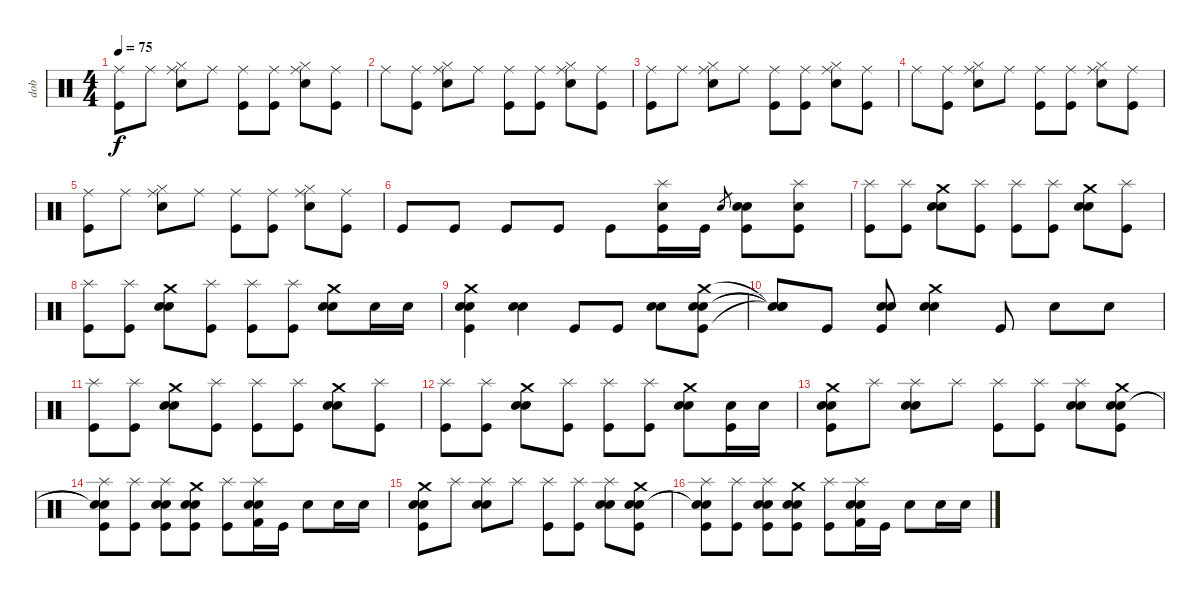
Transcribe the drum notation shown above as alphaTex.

\track ("dob" "dob") {instrument percussion}
\staff {score}
\articulation defaults
\ts (4 4)
\tempo 75
\clef neutral
\ks c
("Ride (middle)" "Kick (hit)").8{dy f} "Ride (middle)".8 ("Ride (middle)" "Hi-Hat (closed)" "Electric Snare (hit)").8 "Ride (middle)".8 ("Ride (middle)" "Kick (hit)").8 ("Ride (middle)" "Kick (hit)").8 ("Ride (middle)" "Hi-Hat (closed)" "Electric Snare (hit)").8 ("Ride (middle)" "Kick (hit)").8 |
"Ride (middle)".8 ("Ride (middle)" "Kick (hit)").8 ("Ride (middle)" "Hi-Hat (closed)" "Electric Snare (hit)").8 "Ride (middle)".8 ("Ride (middle)" "Kick (hit)").8 ("Ride (middle)" "Kick (hit)").8 ("Ride (middle)" "Hi-Hat (closed)" "Electric Snare (hit)").8 ("Ride (middle)" "Kick (hit)").8 |
("Ride (middle)" "Kick (hit)").8 "Ride (middle)".8 ("Ride (middle)" "Hi-Hat (closed)" "Electric Snare (hit)").8 "Ride (middle)".8 ("Ride (middle)" "Kick (hit)").8 ("Ride (middle)" "Kick (hit)").8 ("Ride (middle)" "Hi-Hat (closed)" "Electric Snare (hit)").8 ("Ride (middle)" "Kick (hit)").8 |
"Ride (middle)".8 ("Ride (middle)" "Kick (hit)").8 ("Ride (middle)" "Hi-Hat (closed)" "Electric Snare (hit)").8 "Ride (middle)".8 ("Ride (middle)" "Kick (hit)").8 ("Ride (middle)" "Kick (hit)").8 ("Ride (middle)" "Hi-Hat (closed)" "Electric Snare (hit)").8 ("Ride (middle)" "Kick (hit)").8 |
("Ride (middle)" "Kick (hit)").8 "Ride (middle)".8 ("Ride (middle)" "Hi-Hat (closed)" "Electric Snare (hit)").8 "Ride (middle)".8 ("Ride (middle)" "Kick (hit)").8 ("Ride (middle)" "Kick (hit)").8 ("Ride (middle)" "Hi-Hat (closed)" "Electric Snare (hit)").8 ("Ride (middle)" "Kick (hit)").8 |
"Kick (hit)".8 "Kick (hit)".8 "Kick (hit)".8 "Kick (hit)".8 "Kick (hit)".8 ("Splash (hit)" "Electric Snare (hit)" "Kick (hit)").16 "Kick (hit)".16 "Snare (hit) 2".8{gr} ("Snare (hit) 2" "Electric Snare (hit)" "Kick (hit)").8 ("Splash (hit)" "Electric Snare (hit)" "Kick (hit)").8 |
("Splash (hit)" "Kick (hit)").8 ("Splash (hit)" "Kick (hit)").8 ("Crash medium (hit)" "Snare (hit) 2" "Electric Snare (hit)").8 ("Splash (hit)" "Kick (hit)").8 ("Splash (hit)" "Kick (hit)").8 ("Splash (hit)" "Kick (hit)").8 ("Crash medium (hit)" "Snare (hit) 2" "Electric Snare (hit)").8 ("Splash (hit)" "Kick (hit)").8 |
("Splash (hit)" "Kick (hit)").8 ("Splash (hit)" "Kick (hit)").8 ("Crash medium (hit)" "Snare (hit) 2" "Electric Snare (hit)").8 ("Splash (hit)" "Kick (hit)").8 ("Splash (hit)" "Kick (hit)").8 ("Splash (hit)" "Kick (hit)").8 ("Crash medium (hit)" "Snare (hit) 2" "Electric Snare (hit)").8 "Snare (hit) 2".16 "Snare (hit) 2".16 |
("Crash medium (hit)" "Snare (hit) 2" "Electric Snare (hit)" "Kick (hit)").4 ("Snare (hit) 2" "Electric Snare (hit)").4 "Kick (hit)".8 "Kick (hit)".8 ("Snare (hit) 2" "Electric Snare (hit)").8 ("Crash medium (hit)" "Snare (hit) 2" "Electric Snare (hit)" "Kick (hit)").8 |
("Snare (hit)"{t} "Snare (hit)"{t} "Snare (hit)"{t} "Snare (hit)"{t}).8 "Kick (hit)".8 ("Snare (hit) 2" "Electric Snare (hit)" "Kick (hit)").8 ("Crash medium (hit)" "Snare (hit) 2" "Electric Snare (hit)").4 "Kick (hit)".8 "Snare (hit) 2".8 "Snare (hit) 2".8 |
("Splash (hit)" "Kick (hit)").8 ("Splash (hit)" "Kick (hit)").8 ("Crash medium (hit)" "Snare (hit) 2" "Electric Snare (hit)").8 ("Splash (hit)" "Kick (hit)").8 ("Splash (hit)" "Kick (hit)").8 ("Splash (hit)" "Kick (hit)").8 ("Crash medium (hit)" "Snare (hit) 2" "Electric Snare (hit)").8 ("Splash (hit)" "Kick (hit)").8 |
("Splash (hit)" "Kick (hit)").8 ("Splash (hit)" "Kick (hit)").8 ("Crash medium (hit)" "Snare (hit) 2" "Electric Snare (hit)").8 ("Splash (hit)" "Kick (hit)").8 ("Splash (hit)" "Kick (hit)").8 ("Splash (hit)" "Kick (hit)").8 ("Crash medium (hit)" "Snare (hit) 2" "Electric Snare (hit)").8 ("Snare (hit) 2" "Kick (hit)").16 "Snare (hit) 2".16 |
("Crash medium (hit)" "Snare (hit) 2" "Electric Snare (hit)" "Kick (hit)").8 "Splash (hit)".8 ("Splash (hit)" "Snare (hit) 2" "Electric Snare (hit)").8 "Splash (hit)".8 ("Splash (hit)" "Kick (hit)").8 ("Splash (hit)" "Kick (hit)").8 ("Splash (hit)" "Snare (hit) 2" "Electric Snare (hit)").8 ("Crash medium (hit)" "Snare (hit) 2" "Electric Snare (hit)" "Kick (hit)").8 |
("Splash (hit)" "Snare (hit)"{t} "Snare (hit)"{t} "Kick (hit)").8 ("Splash (hit)" "Kick (hit)").8 ("Splash (hit)" "Snare (hit) 2" "Electric Snare (hit)" "Kick (hit)").8 ("Crash medium (hit)" "Snare (hit) 2" "Electric Snare (hit)" "Kick (hit)").8 ("Splash (hit)" "Kick (hit)").8 ("Splash (hit)" "Snare (hit) 2" "Electric Snare (hit)" "Kick (hit) 2").16 "Kick (hit)".16 "Snare (hit) 2".8 "Snare (hit) 2".16 "Snare (hit) 2".16 |
("Crash medium (hit)" "Snare (hit) 2" "Electric Snare (hit)" "Kick (hit)").8 "Splash (hit)".8 ("Splash (hit)" "Snare (hit) 2" "Electric Snare (hit)").8 "Splash (hit)".8 ("Splash (hit)" "Kick (hit)").8 ("Splash (hit)" "Kick (hit)").8 ("Splash (hit)" "Snare (hit) 2" "Electric Snare (hit)").8 ("Crash medium (hit)" "Snare (hit) 2" "Electric Snare (hit)" "Kick (hit)").8 |
("Splash (hit)" "Snare (hit)"{t} "Snare (hit)"{t} "Kick (hit)").8 ("Splash (hit)" "Kick (hit)").8 ("Splash (hit)" "Snare (hit) 2" "Electric Snare (hit)" "Kick (hit)").8 ("Crash medium (hit)" "Snare (hit) 2" "Electric Snare (hit)" "Kick (hit)").8 ("Splash (hit)" "Kick (hit)").8 ("Splash (hit)" "Snare (hit) 2" "Electric Snare (hit)" "Kick (hit) 2").16 "Kick (hit)".16 "Snare (hit) 2".8 "Snare (hit) 2".16 "Snare (hit) 2".16
